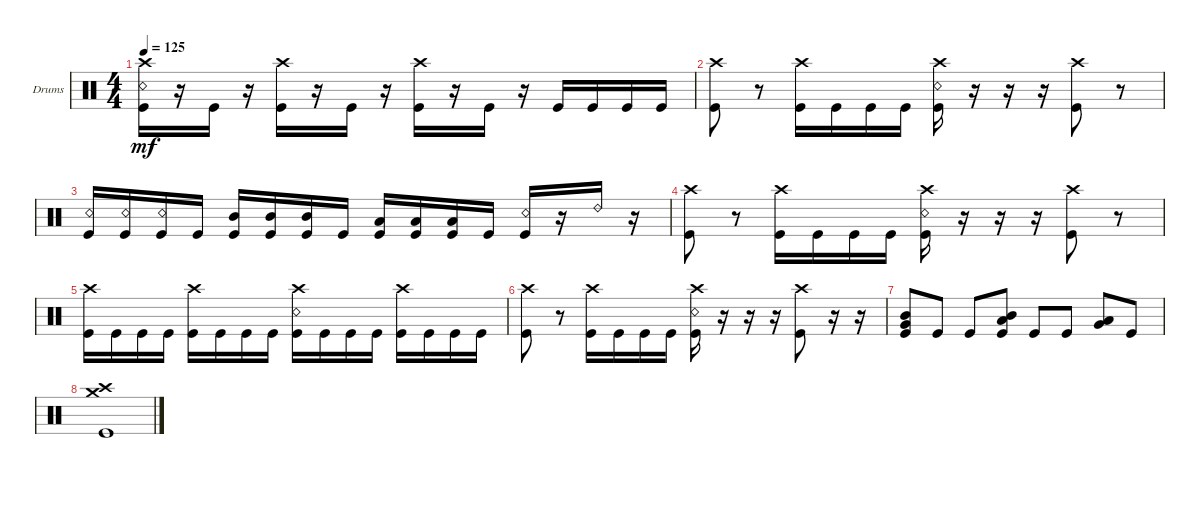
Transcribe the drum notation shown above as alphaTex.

\bracketExtendMode groupsimilarinstruments
\firstSystemTrackNameOrientation horizontal
\otherSystemsTrackNameOrientation horizontal
\track ("Drumkit" "Drums") {instrument percussion}
\staff {score}
\articulation defaults
\ts (4 4)
\tempo 125
\clef neutral
\ks c
("Kick (hit)" "Snare (rim shot)" "Crash high (hit)").16{dy mf} r.16 "Kick (hit)".16 r.16 ("Kick (hit)" "Crash high (hit)").16 r.16 "Kick (hit)".16 r.16 ("Kick (hit)" "Crash high (hit)").16 r.16 "Kick (hit)".16 r.16 "Kick (hit)".16 "Kick (hit)".16 "Kick (hit)".16 "Kick (hit)".16 |
("Kick (hit)" "Crash high (hit)").8 r.8 ("Kick (hit)" "Crash high (hit)").16 "Kick (hit)".16 "Kick (hit)".16 "Kick (hit)".16 ("Kick (hit)" "Snare (rim shot)" "Crash high (hit)").16 r.16 r.16 r.16 ("Kick (hit)" "Crash high (hit)").8 r.8 |
("Kick (hit)" "Snare (rim shot)").16 ("Kick (hit)" "Snare (rim shot)").16 ("Kick (hit)" "Snare (rim shot)").16 "Kick (hit)".16 ("Kick (hit)" "Mid Tom (hit)").16 ("Kick (hit)" "Mid Tom (hit)").16 ("Kick (hit)" "Mid Tom (hit)").16 "Kick (hit)".16 ("Kick (hit)" "Low Tom (hit)").16 ("Kick (hit)" "Low Tom (hit)").16 ("Kick (hit)" "Low Tom (hit)").16 "Kick (hit)".16 ("Kick (hit)" "Snare (rim shot)").16 r.16 "Ride (bell) 2".16 r.16 |
("Kick (hit)" "Crash high (hit)").8 r.8 ("Kick (hit)" "Crash high (hit)").16 "Kick (hit)".16 "Kick (hit)".16 "Kick (hit)".16 ("Kick (hit)" "Snare (rim shot)" "Crash high (hit)").16 r.16 r.16 r.16 ("Kick (hit)" "Crash high (hit)").8 r.8 |
("Kick (hit)" "Crash high (hit)").16 "Kick (hit)".16 "Kick (hit)".16 "Kick (hit)".16 ("Kick (hit)" "Crash high (hit)").16 "Kick (hit)".16 "Kick (hit)".16 "Kick (hit)".16 ("Kick (hit)" "Snare (rim shot)" "Crash high (hit)").16 "Kick (hit)".16 "Kick (hit)".16 "Kick (hit)".16 ("Kick (hit)" "Crash high (hit)").16 "Kick (hit)".16 "Kick (hit)".16 "Kick (hit)".16 |
("Kick (hit)" "Crash high (hit)").8 r.8 ("Kick (hit)" "Crash high (hit)").16 "Kick (hit)".16 "Kick (hit)".16 "Kick (hit)".16 ("Kick (hit)" "Snare (rim shot)" "Crash high (hit)").16 r.16 r.16 r.16 ("Kick (hit)" "Crash high (hit)").8 r.16 r.16 |
("Kick (hit)" "Very Low Tom (hit)" "Mid Tom (hit)").8 "Kick (hit)".8 "Kick (hit)".8 ("Kick (hit)" "Mid Tom (hit)" "Low Tom (hit)").8 "Kick (hit)".8 "Kick (hit)".8 ("Very Low Tom (hit)" "Low Tom (hit)").8 "Kick (hit)".8 |
("Kick (hit)" "Crash medium (hit)" "Crash high (hit)").1
